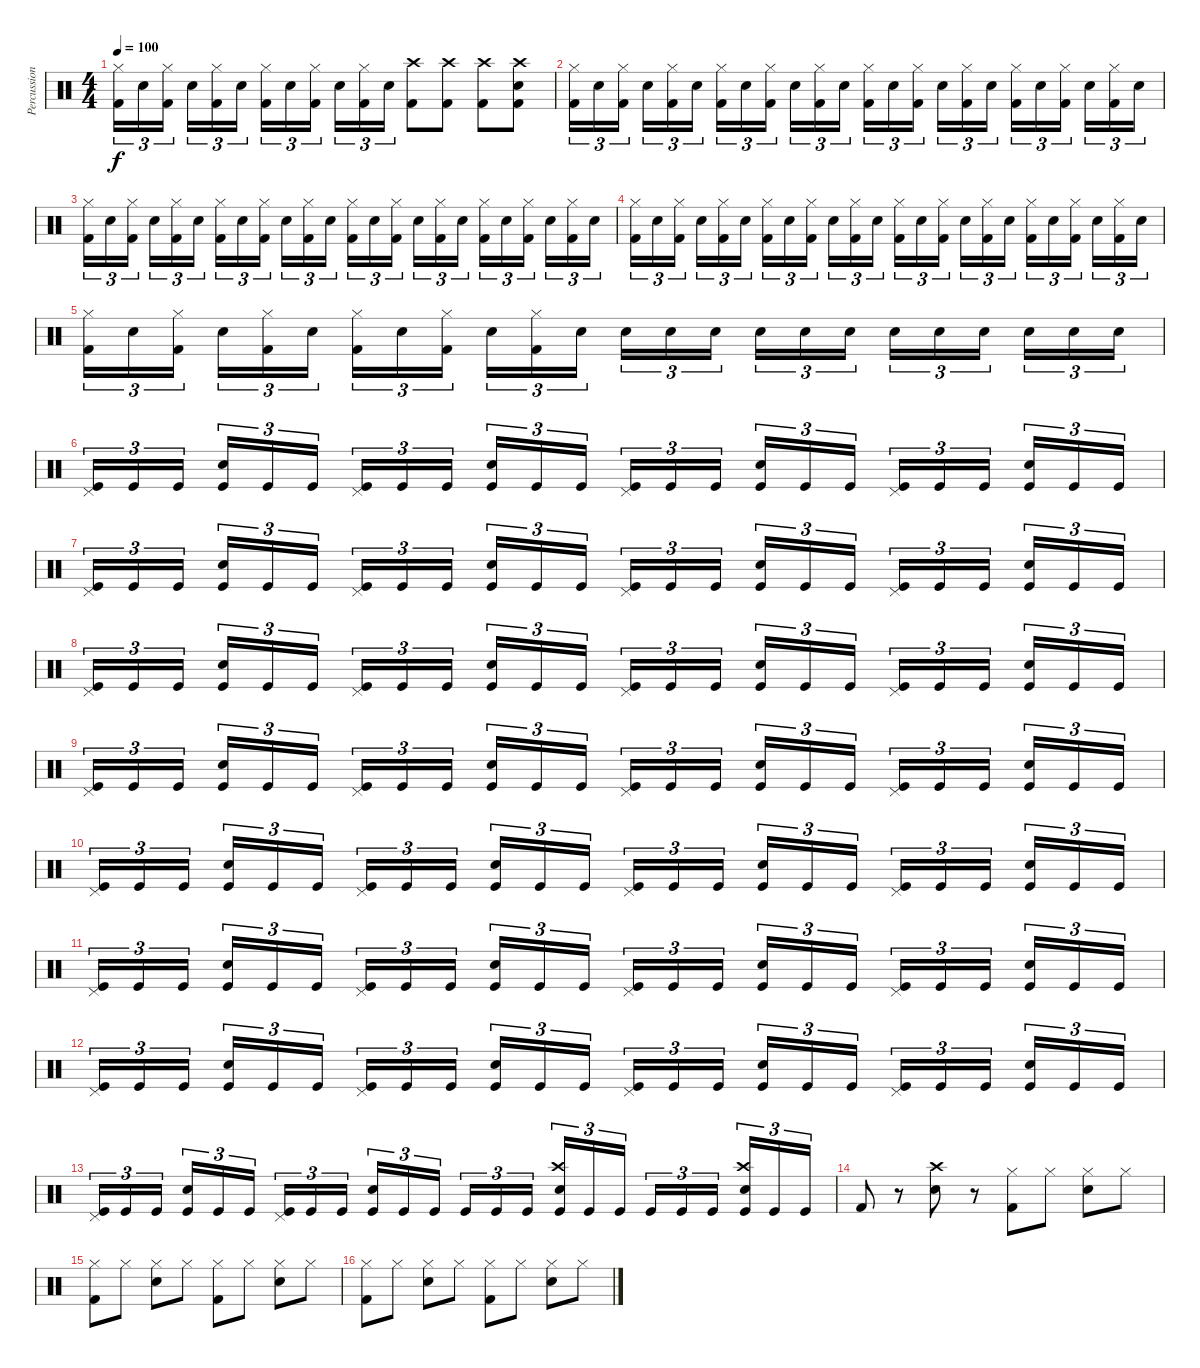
\track ("Percussion" "Percussion") {instrument percussion}
\staff {score}
\articulation defaults
\ts (4 4)
\tempo 100
\clef neutral
\ks c
("Hi-Hat (closed)" "Kick (hit) 2").16{tu (3 2) dy f} "Snare (hit) 2".16{tu (3 2)} ("Hi-Hat (closed)" "Kick (hit) 2").16{tu (3 2) beam splitsecondary} "Snare (hit) 2".16{tu (3 2)} ("Hi-Hat (closed)" "Kick (hit) 2").16{tu (3 2)} "Snare (hit) 2".16{tu (3 2)} ("Hi-Hat (closed)" "Kick (hit) 2").16{tu (3 2)} "Snare (hit) 2".16{tu (3 2)} ("Hi-Hat (closed)" "Kick (hit) 2").16{tu (3 2) beam splitsecondary} "Snare (hit) 2".16{tu (3 2)} ("Hi-Hat (closed)" "Kick (hit) 2").16{tu (3 2)} "Snare (hit) 2".16{tu (3 2)} ("Crash high (hit)" "Kick (hit) 2").8 ("Crash high (hit)" "Kick (hit) 2").8 ("Crash high (hit)" "Kick (hit) 2").8 ("Crash high (hit)" "Snare (hit) 2" "Kick (hit) 2").8 |
("Hi-Hat (closed)" "Kick (hit) 2").16{tu (3 2)} "Snare (hit) 2".16{tu (3 2)} ("Hi-Hat (closed)" "Kick (hit) 2").16{tu (3 2) beam splitsecondary} "Snare (hit) 2".16{tu (3 2)} ("Hi-Hat (closed)" "Kick (hit) 2").16{tu (3 2)} "Snare (hit) 2".16{tu (3 2)} ("Hi-Hat (closed)" "Kick (hit) 2").16{tu (3 2)} "Snare (hit) 2".16{tu (3 2)} ("Hi-Hat (closed)" "Kick (hit) 2").16{tu (3 2) beam splitsecondary} "Snare (hit) 2".16{tu (3 2)} ("Hi-Hat (closed)" "Kick (hit) 2").16{tu (3 2)} "Snare (hit) 2".16{tu (3 2)} ("Hi-Hat (closed)" "Kick (hit) 2").16{tu (3 2)} "Snare (hit) 2".16{tu (3 2)} ("Hi-Hat (closed)" "Kick (hit) 2").16{tu (3 2) beam splitsecondary} "Snare (hit) 2".16{tu (3 2)} ("Hi-Hat (closed)" "Kick (hit) 2").16{tu (3 2)} "Snare (hit) 2".16{tu (3 2)} ("Hi-Hat (closed)" "Kick (hit) 2").16{tu (3 2)} "Snare (hit) 2".16{tu (3 2)} ("Hi-Hat (closed)" "Kick (hit) 2").16{tu (3 2) beam splitsecondary} "Snare (hit) 2".16{tu (3 2)} ("Hi-Hat (closed)" "Kick (hit) 2").16{tu (3 2)} "Snare (hit) 2".16{tu (3 2)} |
("Hi-Hat (closed)" "Kick (hit) 2").16{tu (3 2)} "Snare (hit) 2".16{tu (3 2)} ("Hi-Hat (closed)" "Kick (hit) 2").16{tu (3 2) beam splitsecondary} "Snare (hit) 2".16{tu (3 2)} ("Hi-Hat (closed)" "Kick (hit) 2").16{tu (3 2)} "Snare (hit) 2".16{tu (3 2)} ("Hi-Hat (closed)" "Kick (hit) 2").16{tu (3 2)} "Snare (hit) 2".16{tu (3 2)} ("Hi-Hat (closed)" "Kick (hit) 2").16{tu (3 2) beam splitsecondary} "Snare (hit) 2".16{tu (3 2)} ("Hi-Hat (closed)" "Kick (hit) 2").16{tu (3 2)} "Snare (hit) 2".16{tu (3 2)} ("Hi-Hat (closed)" "Kick (hit) 2").16{tu (3 2)} "Snare (hit) 2".16{tu (3 2)} ("Hi-Hat (closed)" "Kick (hit) 2").16{tu (3 2) beam splitsecondary} "Snare (hit) 2".16{tu (3 2)} ("Hi-Hat (closed)" "Kick (hit) 2").16{tu (3 2)} "Snare (hit) 2".16{tu (3 2)} ("Hi-Hat (closed)" "Kick (hit) 2").16{tu (3 2)} "Snare (hit) 2".16{tu (3 2)} ("Hi-Hat (closed)" "Kick (hit) 2").16{tu (3 2) beam splitsecondary} "Snare (hit) 2".16{tu (3 2)} ("Hi-Hat (closed)" "Kick (hit) 2").16{tu (3 2)} "Snare (hit) 2".16{tu (3 2)} |
("Hi-Hat (closed)" "Kick (hit) 2").16{tu (3 2)} "Snare (hit) 2".16{tu (3 2)} ("Hi-Hat (closed)" "Kick (hit) 2").16{tu (3 2) beam splitsecondary} "Snare (hit) 2".16{tu (3 2)} ("Hi-Hat (closed)" "Kick (hit) 2").16{tu (3 2)} "Snare (hit) 2".16{tu (3 2)} ("Hi-Hat (closed)" "Kick (hit) 2").16{tu (3 2)} "Snare (hit) 2".16{tu (3 2)} ("Hi-Hat (closed)" "Kick (hit) 2").16{tu (3 2) beam splitsecondary} "Snare (hit) 2".16{tu (3 2)} ("Hi-Hat (closed)" "Kick (hit) 2").16{tu (3 2)} "Snare (hit) 2".16{tu (3 2)} ("Hi-Hat (closed)" "Kick (hit) 2").16{tu (3 2)} "Snare (hit) 2".16{tu (3 2)} ("Hi-Hat (closed)" "Kick (hit) 2").16{tu (3 2) beam splitsecondary} "Snare (hit) 2".16{tu (3 2)} ("Hi-Hat (closed)" "Kick (hit) 2").16{tu (3 2)} "Snare (hit) 2".16{tu (3 2)} ("Hi-Hat (closed)" "Kick (hit) 2").16{tu (3 2)} "Snare (hit) 2".16{tu (3 2)} ("Hi-Hat (closed)" "Kick (hit) 2").16{tu (3 2) beam splitsecondary} "Snare (hit) 2".16{tu (3 2)} ("Hi-Hat (closed)" "Kick (hit) 2").16{tu (3 2)} "Snare (hit) 2".16{tu (3 2)} |
("Hi-Hat (closed)" "Kick (hit) 2").16{tu (3 2)} "Snare (hit) 2".16{tu (3 2)} ("Hi-Hat (closed)" "Kick (hit) 2").16{tu (3 2) beam splitsecondary} "Snare (hit) 2".16{tu (3 2)} ("Hi-Hat (closed)" "Kick (hit) 2").16{tu (3 2)} "Snare (hit) 2".16{tu (3 2)} ("Hi-Hat (closed)" "Kick (hit) 2").16{tu (3 2)} "Snare (hit) 2".16{tu (3 2)} ("Hi-Hat (closed)" "Kick (hit) 2").16{tu (3 2) beam splitsecondary} "Snare (hit) 2".16{tu (3 2)} ("Hi-Hat (closed)" "Kick (hit) 2").16{tu (3 2)} "Snare (hit) 2".16{tu (3 2)} "Snare (hit) 2".16{tu (3 2)} "Snare (hit) 2".16{tu (3 2)} "Snare (hit) 2".16{tu (3 2) beam splitsecondary} "Snare (hit) 2".16{tu (3 2)} "Snare (hit) 2".16{tu (3 2)} "Snare (hit) 2".16{tu (3 2)} "Snare (hit) 2".16{tu (3 2)} "Snare (hit) 2".16{tu (3 2)} "Snare (hit) 2".16{tu (3 2) beam splitsecondary} "Snare (hit) 2".16{tu (3 2)} "Snare (hit) 2".16{tu (3 2)} "Snare (hit) 2".16{tu (3 2)} |
("Pedal Hi-Hat (hit)" "Kick (hit)").16{tu (3 2)} "Kick (hit)".16{tu (3 2)} "Kick (hit)".16{tu (3 2) beam splitsecondary} ("Snare (hit) 2" "Kick (hit)").16{tu (3 2)} "Kick (hit)".16{tu (3 2)} "Kick (hit)".16{tu (3 2)} ("Pedal Hi-Hat (hit)" "Kick (hit)").16{tu (3 2)} "Kick (hit)".16{tu (3 2)} "Kick (hit)".16{tu (3 2) beam splitsecondary} ("Snare (hit) 2" "Kick (hit)").16{tu (3 2)} "Kick (hit)".16{tu (3 2)} "Kick (hit)".16{tu (3 2)} ("Pedal Hi-Hat (hit)" "Kick (hit)").16{tu (3 2)} "Kick (hit)".16{tu (3 2)} "Kick (hit)".16{tu (3 2) beam splitsecondary} ("Snare (hit) 2" "Kick (hit)").16{tu (3 2)} "Kick (hit)".16{tu (3 2)} "Kick (hit)".16{tu (3 2)} ("Pedal Hi-Hat (hit)" "Kick (hit)").16{tu (3 2)} "Kick (hit)".16{tu (3 2)} "Kick (hit)".16{tu (3 2) beam splitsecondary} ("Snare (hit) 2" "Kick (hit)").16{tu (3 2)} "Kick (hit)".16{tu (3 2)} "Kick (hit)".16{tu (3 2)} |
("Pedal Hi-Hat (hit)" "Kick (hit)").16{tu (3 2)} "Kick (hit)".16{tu (3 2)} "Kick (hit)".16{tu (3 2) beam splitsecondary} ("Snare (hit) 2" "Kick (hit)").16{tu (3 2)} "Kick (hit)".16{tu (3 2)} "Kick (hit)".16{tu (3 2)} ("Pedal Hi-Hat (hit)" "Kick (hit)").16{tu (3 2)} "Kick (hit)".16{tu (3 2)} "Kick (hit)".16{tu (3 2) beam splitsecondary} ("Snare (hit) 2" "Kick (hit)").16{tu (3 2)} "Kick (hit)".16{tu (3 2)} "Kick (hit)".16{tu (3 2)} ("Pedal Hi-Hat (hit)" "Kick (hit)").16{tu (3 2)} "Kick (hit)".16{tu (3 2)} "Kick (hit)".16{tu (3 2) beam splitsecondary} ("Snare (hit) 2" "Kick (hit)").16{tu (3 2)} "Kick (hit)".16{tu (3 2)} "Kick (hit)".16{tu (3 2)} ("Pedal Hi-Hat (hit)" "Kick (hit)").16{tu (3 2)} "Kick (hit)".16{tu (3 2)} "Kick (hit)".16{tu (3 2) beam splitsecondary} ("Snare (hit) 2" "Kick (hit)").16{tu (3 2)} "Kick (hit)".16{tu (3 2)} "Kick (hit)".16{tu (3 2)} |
("Pedal Hi-Hat (hit)" "Kick (hit)").16{tu (3 2)} "Kick (hit)".16{tu (3 2)} "Kick (hit)".16{tu (3 2) beam splitsecondary} ("Snare (hit) 2" "Kick (hit)").16{tu (3 2)} "Kick (hit)".16{tu (3 2)} "Kick (hit)".16{tu (3 2)} ("Pedal Hi-Hat (hit)" "Kick (hit)").16{tu (3 2)} "Kick (hit)".16{tu (3 2)} "Kick (hit)".16{tu (3 2) beam splitsecondary} ("Snare (hit) 2" "Kick (hit)").16{tu (3 2)} "Kick (hit)".16{tu (3 2)} "Kick (hit)".16{tu (3 2)} ("Pedal Hi-Hat (hit)" "Kick (hit)").16{tu (3 2)} "Kick (hit)".16{tu (3 2)} "Kick (hit)".16{tu (3 2) beam splitsecondary} ("Snare (hit) 2" "Kick (hit)").16{tu (3 2)} "Kick (hit)".16{tu (3 2)} "Kick (hit)".16{tu (3 2)} ("Pedal Hi-Hat (hit)" "Kick (hit)").16{tu (3 2)} "Kick (hit)".16{tu (3 2)} "Kick (hit)".16{tu (3 2) beam splitsecondary} ("Snare (hit) 2" "Kick (hit)").16{tu (3 2)} "Kick (hit)".16{tu (3 2)} "Kick (hit)".16{tu (3 2)} |
("Pedal Hi-Hat (hit)" "Kick (hit)").16{tu (3 2)} "Kick (hit)".16{tu (3 2)} "Kick (hit)".16{tu (3 2) beam splitsecondary} ("Snare (hit) 2" "Kick (hit)").16{tu (3 2)} "Kick (hit)".16{tu (3 2)} "Kick (hit)".16{tu (3 2)} ("Pedal Hi-Hat (hit)" "Kick (hit)").16{tu (3 2)} "Kick (hit)".16{tu (3 2)} "Kick (hit)".16{tu (3 2) beam splitsecondary} ("Snare (hit) 2" "Kick (hit)").16{tu (3 2)} "Kick (hit)".16{tu (3 2)} "Kick (hit)".16{tu (3 2)} ("Pedal Hi-Hat (hit)" "Kick (hit)").16{tu (3 2)} "Kick (hit)".16{tu (3 2)} "Kick (hit)".16{tu (3 2) beam splitsecondary} ("Snare (hit) 2" "Kick (hit)").16{tu (3 2)} "Kick (hit)".16{tu (3 2)} "Kick (hit)".16{tu (3 2)} ("Pedal Hi-Hat (hit)" "Kick (hit)").16{tu (3 2)} "Kick (hit)".16{tu (3 2)} "Kick (hit)".16{tu (3 2) beam splitsecondary} ("Snare (hit) 2" "Kick (hit)").16{tu (3 2)} "Kick (hit)".16{tu (3 2)} "Kick (hit)".16{tu (3 2)} |
("Pedal Hi-Hat (hit)" "Kick (hit)").16{tu (3 2)} "Kick (hit)".16{tu (3 2)} "Kick (hit)".16{tu (3 2) beam splitsecondary} ("Snare (hit) 2" "Kick (hit)").16{tu (3 2)} "Kick (hit)".16{tu (3 2)} "Kick (hit)".16{tu (3 2)} ("Pedal Hi-Hat (hit)" "Kick (hit)").16{tu (3 2)} "Kick (hit)".16{tu (3 2)} "Kick (hit)".16{tu (3 2) beam splitsecondary} ("Snare (hit) 2" "Kick (hit)").16{tu (3 2)} "Kick (hit)".16{tu (3 2)} "Kick (hit)".16{tu (3 2)} ("Pedal Hi-Hat (hit)" "Kick (hit)").16{tu (3 2)} "Kick (hit)".16{tu (3 2)} "Kick (hit)".16{tu (3 2) beam splitsecondary} ("Snare (hit) 2" "Kick (hit)").16{tu (3 2)} "Kick (hit)".16{tu (3 2)} "Kick (hit)".16{tu (3 2)} ("Pedal Hi-Hat (hit)" "Kick (hit)").16{tu (3 2)} "Kick (hit)".16{tu (3 2)} "Kick (hit)".16{tu (3 2) beam splitsecondary} ("Snare (hit) 2" "Kick (hit)").16{tu (3 2)} "Kick (hit)".16{tu (3 2)} "Kick (hit)".16{tu (3 2)} |
("Pedal Hi-Hat (hit)" "Kick (hit)").16{tu (3 2)} "Kick (hit)".16{tu (3 2)} "Kick (hit)".16{tu (3 2) beam splitsecondary} ("Snare (hit) 2" "Kick (hit)").16{tu (3 2)} "Kick (hit)".16{tu (3 2)} "Kick (hit)".16{tu (3 2)} ("Pedal Hi-Hat (hit)" "Kick (hit)").16{tu (3 2)} "Kick (hit)".16{tu (3 2)} "Kick (hit)".16{tu (3 2) beam splitsecondary} ("Snare (hit) 2" "Kick (hit)").16{tu (3 2)} "Kick (hit)".16{tu (3 2)} "Kick (hit)".16{tu (3 2)} ("Pedal Hi-Hat (hit)" "Kick (hit)").16{tu (3 2)} "Kick (hit)".16{tu (3 2)} "Kick (hit)".16{tu (3 2) beam splitsecondary} ("Snare (hit) 2" "Kick (hit)").16{tu (3 2)} "Kick (hit)".16{tu (3 2)} "Kick (hit)".16{tu (3 2)} ("Pedal Hi-Hat (hit)" "Kick (hit)").16{tu (3 2)} "Kick (hit)".16{tu (3 2)} "Kick (hit)".16{tu (3 2) beam splitsecondary} ("Snare (hit) 2" "Kick (hit)").16{tu (3 2)} "Kick (hit)".16{tu (3 2)} "Kick (hit)".16{tu (3 2)} |
("Pedal Hi-Hat (hit)" "Kick (hit)").16{tu (3 2)} "Kick (hit)".16{tu (3 2)} "Kick (hit)".16{tu (3 2) beam splitsecondary} ("Snare (hit) 2" "Kick (hit)").16{tu (3 2)} "Kick (hit)".16{tu (3 2)} "Kick (hit)".16{tu (3 2)} ("Pedal Hi-Hat (hit)" "Kick (hit)").16{tu (3 2)} "Kick (hit)".16{tu (3 2)} "Kick (hit)".16{tu (3 2) beam splitsecondary} ("Snare (hit) 2" "Kick (hit)").16{tu (3 2)} "Kick (hit)".16{tu (3 2)} "Kick (hit)".16{tu (3 2)} ("Pedal Hi-Hat (hit)" "Kick (hit)").16{tu (3 2)} "Kick (hit)".16{tu (3 2)} "Kick (hit)".16{tu (3 2) beam splitsecondary} ("Snare (hit) 2" "Kick (hit)").16{tu (3 2)} "Kick (hit)".16{tu (3 2)} "Kick (hit)".16{tu (3 2)} ("Pedal Hi-Hat (hit)" "Kick (hit)").16{tu (3 2)} "Kick (hit)".16{tu (3 2)} "Kick (hit)".16{tu (3 2) beam splitsecondary} ("Snare (hit) 2" "Kick (hit)").16{tu (3 2)} "Kick (hit)".16{tu (3 2)} "Kick (hit)".16{tu (3 2)} |
("Pedal Hi-Hat (hit)" "Kick (hit)").16{tu (3 2)} "Kick (hit)".16{tu (3 2)} "Kick (hit)".16{tu (3 2) beam splitsecondary} ("Snare (hit) 2" "Kick (hit)").16{tu (3 2)} "Kick (hit)".16{tu (3 2)} "Kick (hit)".16{tu (3 2)} ("Pedal Hi-Hat (hit)" "Kick (hit)").16{tu (3 2)} "Kick (hit)".16{tu (3 2)} "Kick (hit)".16{tu (3 2) beam splitsecondary} ("Snare (hit) 2" "Kick (hit)").16{tu (3 2)} "Kick (hit)".16{tu (3 2)} "Kick (hit)".16{tu (3 2)} "Kick (hit)".16{tu (3 2)} "Kick (hit)".16{tu (3 2)} "Kick (hit)".16{tu (3 2) beam splitsecondary} ("Crash high (hit)" "Snare (hit) 2" "Kick (hit)").16{tu (3 2)} "Kick (hit)".16{tu (3 2)} "Kick (hit)".16{tu (3 2)} "Kick (hit)".16{tu (3 2)} "Kick (hit)".16{tu (3 2)} "Kick (hit)".16{tu (3 2) beam splitsecondary} ("Crash high (hit)" "Snare (hit) 2" "Kick (hit)").16{tu (3 2)} "Kick (hit)".16{tu (3 2)} "Kick (hit)".16{tu (3 2)} |
"Kick (hit) 2".8 r.8 ("Crash high (hit)" "Snare (hit) 2").8 r.8 ("Hi-Hat (closed)" "Kick (hit) 2").8 "Hi-Hat (closed)".8 ("Hi-Hat (closed)" "Snare (hit) 2").8 "Hi-Hat (closed)".8 |
("Hi-Hat (closed)" "Kick (hit) 2").8 "Hi-Hat (closed)".8 ("Hi-Hat (closed)" "Snare (hit) 2").8 "Hi-Hat (closed)".8 ("Hi-Hat (closed)" "Kick (hit) 2").8 "Hi-Hat (closed)".8 ("Hi-Hat (closed)" "Snare (hit) 2").8 "Hi-Hat (closed)".8 |
("Hi-Hat (closed)" "Kick (hit) 2").8 "Hi-Hat (closed)".8 ("Hi-Hat (closed)" "Snare (hit) 2").8 "Hi-Hat (closed)".8 ("Hi-Hat (closed)" "Kick (hit) 2").8 "Hi-Hat (closed)".8 ("Hi-Hat (closed)" "Snare (hit) 2").8 "Hi-Hat (closed)".8
